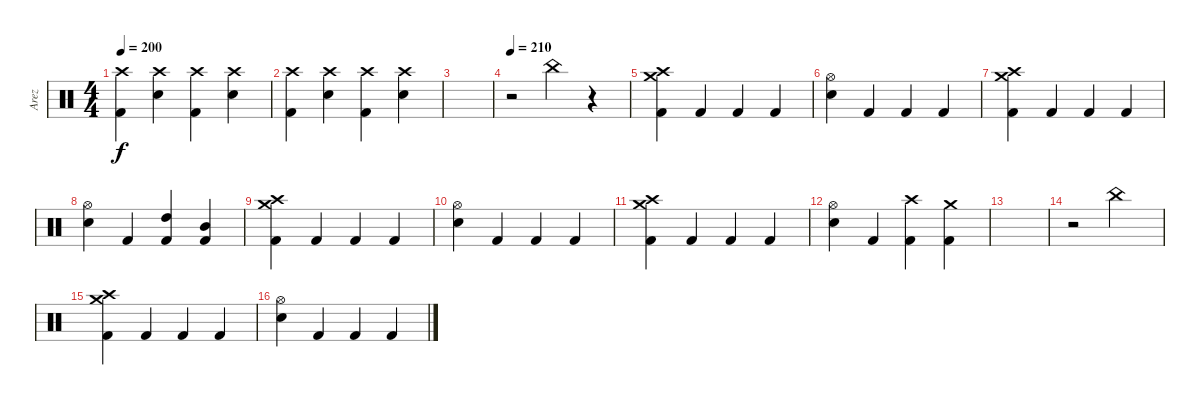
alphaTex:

\track ("Arez" "Arez") {instrument percussion}
\staff {score}
\articulation defaults
\ts (4 4)
\tempo 200
\clef neutral
\ks c
("Kick (hit) 2" "Crash high (hit)").4{dy f} ("Crash high (hit)" "Electric Snare (hit)").4 ("Kick (hit) 2" "Crash high (hit)").4 ("Crash high (hit)" "Electric Snare (hit)").4 |
("Kick (hit) 2" "Crash high (hit)").4 ("Crash high (hit)" "Electric Snare (hit)").4 ("Kick (hit) 2" "Crash high (hit)").4 ("Crash high (hit)" "Electric Snare (hit)").4 |
|
\tempo 210
r.2 "China (hit)".4 r.4 |
("Crash high (hit)" "Crash medium (hit)" "Kick (hit) 2").4 "Kick (hit) 2".4 "Kick (hit) 2".4 "Kick (hit) 2".4 |
("Hi-Hat (open)" "Electric Snare (hit)").4 "Kick (hit) 2".4 "Kick (hit) 2".4 "Kick (hit) 2".4 |
("Crash high (hit)" "Crash medium (hit)" "Kick (hit) 2").4 "Kick (hit) 2".4 "Kick (hit) 2".4 "Kick (hit) 2".4 |
("Hi-Hat (open)" "Electric Snare (hit)").4 "Kick (hit) 2".4 ("Kick (hit) 2" "High Tom (hit)").4 ("Kick (hit) 2" "Mid Tom (hit)").4 |
("Crash high (hit)" "Crash medium (hit)" "Kick (hit) 2").4 "Kick (hit) 2".4 "Kick (hit) 2".4 "Kick (hit) 2".4 |
("Hi-Hat (open)" "Electric Snare (hit)").4 "Kick (hit) 2".4 "Kick (hit) 2".4 "Kick (hit) 2".4 |
("Crash high (hit)" "Crash medium (hit)" "Kick (hit) 2").4 "Kick (hit) 2".4 "Kick (hit) 2".4 "Kick (hit) 2".4 |
("Hi-Hat (open)" "Electric Snare (hit)").4 "Kick (hit) 2".4 ("Kick (hit) 2" "Crash high (hit)").4 ("Kick (hit) 2" "Crash medium (hit)").4 |
|
r.2 "China (hit)".2 |
("Crash high (hit)" "Crash medium (hit)" "Kick (hit) 2").4 "Kick (hit) 2".4 "Kick (hit) 2".4 "Kick (hit) 2".4 |
("Hi-Hat (open)" "Electric Snare (hit)").4 "Kick (hit) 2".4 "Kick (hit) 2".4 "Kick (hit) 2".4
